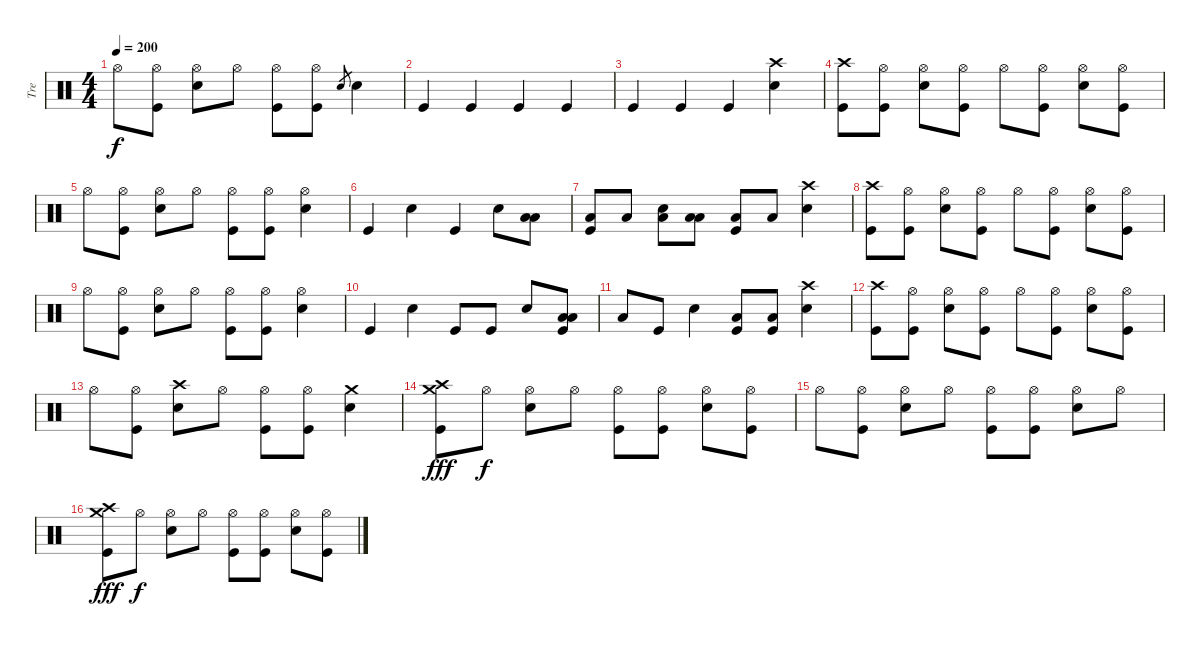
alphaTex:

\track ("Tre" "Tre") {instrument percussion}
\staff {score}
\articulation defaults
\ts (4 4)
\tempo 200
\clef neutral
\ks c "Hi-Hat (open)".8{dy f}
("Hi-Hat (open)" "Kick (hit)").8 ("Hi-Hat (open)" "Snare (hit) 2").8 "Hi-Hat (open)".8 ("Hi-Hat (open)" "Kick (hit)").8 ("Hi-Hat (open)" "Kick (hit)").8 "Snare (hit) 2".8{gr} "Snare (hit) 2".4 |
"Kick (hit)".4 "Kick (hit)".4 "Kick (hit)".4 "Kick (hit)".4 |
"Kick (hit)".4 "Kick (hit)".4 "Kick (hit)".4 ("Snare (hit) 2" "Crash high (hit)").4 |
("Crash high (hit)" "Kick (hit)").8 ("Hi-Hat (open)" "Kick (hit)").8 ("Hi-Hat (open)" "Snare (hit) 2").8 ("Hi-Hat (open)" "Kick (hit)").8 "Hi-Hat (open)".8 ("Hi-Hat (open)" "Kick (hit)").8 ("Hi-Hat (open)" "Snare (hit) 2").8 ("Hi-Hat (open)" "Kick (hit)").8 |
"Hi-Hat (open)".8 ("Hi-Hat (open)" "Kick (hit)").8 ("Hi-Hat (open)" "Snare (hit) 2").8 "Hi-Hat (open)".8 ("Hi-Hat (open)" "Kick (hit)").8 ("Hi-Hat (open)" "Kick (hit)").8 ("Hi-Hat (open)" "Snare (hit) 2").4 |
"Kick (hit)".4 "Snare (hit) 2".4 "Kick (hit)".4 "Snare (hit) 2".8 ("Low Tom (hit)" "Low Floor Tom (hit)").8 |
("Low Floor Tom (hit)" "Kick (hit)").8 "Low Floor Tom (hit)".8 ("Low Floor Tom (hit)" "Snare (hit) 2").8 ("Low Floor Tom (hit)" "Low Tom (hit)").8 ("Low Floor Tom (hit)" "Kick (hit)").8 "Low Floor Tom (hit)".8 ("Snare (hit) 2" "Crash high (hit)").4 |
("Crash high (hit)" "Kick (hit)").8 ("Hi-Hat (open)" "Kick (hit)").8 ("Hi-Hat (open)" "Snare (hit) 2").8 ("Hi-Hat (open)" "Kick (hit)").8 "Hi-Hat (open)".8 ("Hi-Hat (open)" "Kick (hit)").8 ("Hi-Hat (open)" "Snare (hit) 2").8 ("Hi-Hat (open)" "Kick (hit)").8 |
"Hi-Hat (open)".8 ("Hi-Hat (open)" "Kick (hit)").8 ("Hi-Hat (open)" "Snare (hit) 2").8 "Hi-Hat (open)".8 ("Hi-Hat (open)" "Kick (hit)").8 ("Hi-Hat (open)" "Kick (hit)").8 ("Hi-Hat (open)" "Snare (hit) 2").4 |
"Kick (hit)".4 "Snare (hit) 2".4 "Kick (hit)".8 "Kick (hit)".8 "Snare (hit) 2".8 ("Kick (hit)" "Low Tom (hit)" "Low Floor Tom (hit)").8 |
"Low Floor Tom (hit)".8 "Kick (hit)".8 "Snare (hit) 2".4 ("Low Floor Tom (hit)" "Kick (hit)").8 ("Low Floor Tom (hit)" "Kick (hit)").8 ("Snare (hit) 2" "Crash high (hit)").4 |
("Crash high (hit)" "Kick (hit)").8 ("Hi-Hat (open)" "Kick (hit)").8 ("Hi-Hat (open)" "Snare (hit) 2").8 ("Hi-Hat (open)" "Kick (hit)").8 "Hi-Hat (open)".8 ("Hi-Hat (open)" "Kick (hit)").8 ("Hi-Hat (open)" "Snare (hit) 2").8 ("Hi-Hat (open)" "Kick (hit)").8 |
"Hi-Hat (open)".8 ("Hi-Hat (open)" "Kick (hit)").8 ("Crash high (hit)" "Snare (hit) 2").8 "Hi-Hat (open)".8 ("Hi-Hat (open)" "Kick (hit)").8 ("Hi-Hat (open)" "Kick (hit)").8 ("Crash medium (hit)" "Snare (hit) 2").4 |
("Crash medium (hit)" "Kick (hit)" "Crash high (hit)").8{dy fff} "Hi-Hat (open)".8{dy f} ("Hi-Hat (open)" "Snare (hit) 2").8 "Hi-Hat (open)".8 ("Hi-Hat (open)" "Kick (hit)").8 ("Hi-Hat (open)" "Kick (hit)").8 ("Hi-Hat (open)" "Snare (hit) 2").8 ("Hi-Hat (open)" "Kick (hit)").8 |
"Hi-Hat (open)".8 ("Hi-Hat (open)" "Kick (hit)").8 ("Hi-Hat (open)" "Snare (hit) 2").8 "Hi-Hat (open)".8 ("Hi-Hat (open)" "Kick (hit)").8 ("Hi-Hat (open)" "Kick (hit)").8 ("Hi-Hat (open)" "Snare (hit) 2").8 "Hi-Hat (open)".8 |
("Crash medium (hit)" "Kick (hit)" "Crash high (hit)").8{dy fff} "Hi-Hat (open)".8{dy f} ("Hi-Hat (open)" "Snare (hit) 2").8 "Hi-Hat (open)".8 ("Hi-Hat (open)" "Kick (hit)").8 ("Hi-Hat (open)" "Kick (hit)").8 ("Hi-Hat (open)" "Snare (hit) 2").8 ("Hi-Hat (open)" "Kick (hit)").8
